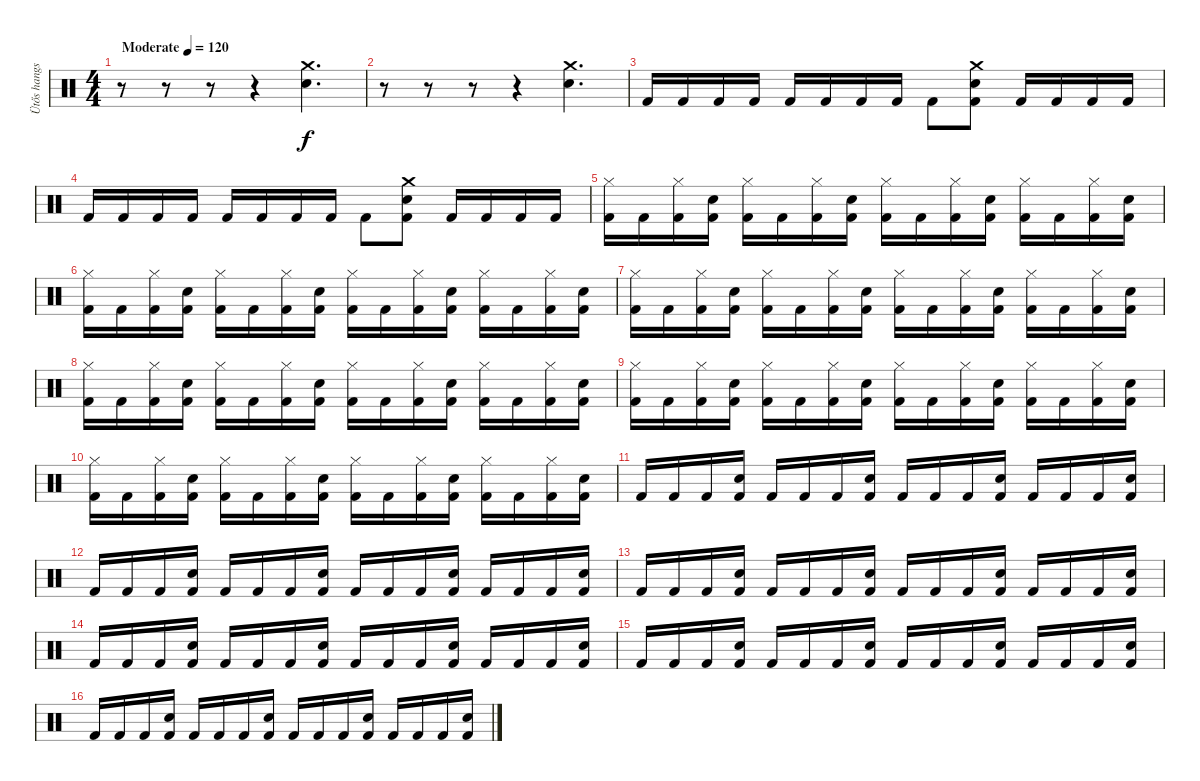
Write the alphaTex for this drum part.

\track ("Ütős hangszer" "Ütős hangs") {instrument percussion}
\staff {score}
\articulation defaults
\ts (4 4)
\tempo (120 "Moderate")
\clef neutral
\ks c
r.8{dy f} r.8 r.8 r.4 ("Crash medium (hit)" "Snare (hit) 2").4{d} |
r.8 r.8 r.8 r.4 ("Crash medium (hit)" "Snare (hit) 2").4{d} |
"Kick (hit) 2".16 "Kick (hit) 2".16 "Kick (hit) 2".16 "Kick (hit) 2".16 "Kick (hit) 2".16 "Kick (hit) 2".16 "Kick (hit) 2".16 "Kick (hit) 2".16 "Kick (hit) 2".8 ("Crash medium (hit)" "Snare (hit) 2" "Kick (hit) 2").8 "Kick (hit) 2".16 "Kick (hit) 2".16 "Kick (hit) 2".16 "Kick (hit) 2".16 |
"Kick (hit) 2".16 "Kick (hit) 2".16 "Kick (hit) 2".16 "Kick (hit) 2".16 "Kick (hit) 2".16 "Kick (hit) 2".16 "Kick (hit) 2".16 "Kick (hit) 2".16 "Kick (hit) 2".8 ("Crash medium (hit)" "Snare (hit) 2" "Kick (hit) 2").8 "Kick (hit) 2".16 "Kick (hit) 2".16 "Kick (hit) 2".16 "Kick (hit) 2".16 |
("Hi-Hat (closed)" "Kick (hit) 2").16 "Kick (hit) 2".16 ("Hi-Hat (closed)" "Kick (hit) 2").16 ("Snare (hit) 2" "Kick (hit) 2").16 ("Hi-Hat (closed)" "Kick (hit) 2").16 "Kick (hit) 2".16 ("Hi-Hat (closed)" "Kick (hit) 2").16 ("Snare (hit) 2" "Kick (hit) 2").16 ("Hi-Hat (closed)" "Kick (hit) 2").16 "Kick (hit) 2".16 ("Hi-Hat (closed)" "Kick (hit) 2").16 ("Snare (hit) 2" "Kick (hit) 2").16 ("Hi-Hat (closed)" "Kick (hit) 2").16 "Kick (hit) 2".16 ("Hi-Hat (closed)" "Kick (hit) 2").16 ("Snare (hit) 2" "Kick (hit) 2").16 |
("Hi-Hat (closed)" "Kick (hit) 2").16 "Kick (hit) 2".16 ("Hi-Hat (closed)" "Kick (hit) 2").16 ("Snare (hit) 2" "Kick (hit) 2").16 ("Hi-Hat (closed)" "Kick (hit) 2").16 "Kick (hit) 2".16 ("Hi-Hat (closed)" "Kick (hit) 2").16 ("Snare (hit) 2" "Kick (hit) 2").16 ("Hi-Hat (closed)" "Kick (hit) 2").16 "Kick (hit) 2".16 ("Hi-Hat (closed)" "Kick (hit) 2").16 ("Snare (hit) 2" "Kick (hit) 2").16 ("Hi-Hat (closed)" "Kick (hit) 2").16 "Kick (hit) 2".16 ("Hi-Hat (closed)" "Kick (hit) 2").16 ("Snare (hit) 2" "Kick (hit) 2").16 |
("Hi-Hat (closed)" "Kick (hit) 2").16 "Kick (hit) 2".16 ("Hi-Hat (closed)" "Kick (hit) 2").16 ("Snare (hit) 2" "Kick (hit) 2").16 ("Hi-Hat (closed)" "Kick (hit) 2").16 "Kick (hit) 2".16 ("Hi-Hat (closed)" "Kick (hit) 2").16 ("Snare (hit) 2" "Kick (hit) 2").16 ("Hi-Hat (closed)" "Kick (hit) 2").16 "Kick (hit) 2".16 ("Hi-Hat (closed)" "Kick (hit) 2").16 ("Snare (hit) 2" "Kick (hit) 2").16 ("Hi-Hat (closed)" "Kick (hit) 2").16 "Kick (hit) 2".16 ("Hi-Hat (closed)" "Kick (hit) 2").16 ("Snare (hit) 2" "Kick (hit) 2").16 |
("Hi-Hat (closed)" "Kick (hit) 2").16 "Kick (hit) 2".16 ("Hi-Hat (closed)" "Kick (hit) 2").16 ("Snare (hit) 2" "Kick (hit) 2").16 ("Hi-Hat (closed)" "Kick (hit) 2").16 "Kick (hit) 2".16 ("Hi-Hat (closed)" "Kick (hit) 2").16 ("Snare (hit) 2" "Kick (hit) 2").16 ("Hi-Hat (closed)" "Kick (hit) 2").16 "Kick (hit) 2".16 ("Hi-Hat (closed)" "Kick (hit) 2").16 ("Snare (hit) 2" "Kick (hit) 2").16 ("Hi-Hat (closed)" "Kick (hit) 2").16 "Kick (hit) 2".16 ("Hi-Hat (closed)" "Kick (hit) 2").16 ("Snare (hit) 2" "Kick (hit) 2").16 |
("Hi-Hat (closed)" "Kick (hit) 2").16 "Kick (hit) 2".16 ("Hi-Hat (closed)" "Kick (hit) 2").16 ("Snare (hit) 2" "Kick (hit) 2").16 ("Hi-Hat (closed)" "Kick (hit) 2").16 "Kick (hit) 2".16 ("Hi-Hat (closed)" "Kick (hit) 2").16 ("Snare (hit) 2" "Kick (hit) 2").16 ("Hi-Hat (closed)" "Kick (hit) 2").16 "Kick (hit) 2".16 ("Hi-Hat (closed)" "Kick (hit) 2").16 ("Snare (hit) 2" "Kick (hit) 2").16 ("Hi-Hat (closed)" "Kick (hit) 2").16 "Kick (hit) 2".16 ("Hi-Hat (closed)" "Kick (hit) 2").16 ("Snare (hit) 2" "Kick (hit) 2").16 |
("Hi-Hat (closed)" "Kick (hit) 2").16 "Kick (hit) 2".16 ("Hi-Hat (closed)" "Kick (hit) 2").16 ("Snare (hit) 2" "Kick (hit) 2").16 ("Hi-Hat (closed)" "Kick (hit) 2").16 "Kick (hit) 2".16 ("Hi-Hat (closed)" "Kick (hit) 2").16 ("Snare (hit) 2" "Kick (hit) 2").16 ("Hi-Hat (closed)" "Kick (hit) 2").16 "Kick (hit) 2".16 ("Hi-Hat (closed)" "Kick (hit) 2").16 ("Snare (hit) 2" "Kick (hit) 2").16 ("Hi-Hat (closed)" "Kick (hit) 2").16 "Kick (hit) 2".16 ("Hi-Hat (closed)" "Kick (hit) 2").16 ("Snare (hit) 2" "Kick (hit) 2").16 |
"Kick (hit) 2".16 "Kick (hit) 2".16 "Kick (hit) 2".16 ("Snare (hit) 2" "Kick (hit) 2").16 "Kick (hit) 2".16 "Kick (hit) 2".16 "Kick (hit) 2".16 ("Snare (hit) 2" "Kick (hit) 2").16 "Kick (hit) 2".16 "Kick (hit) 2".16 "Kick (hit) 2".16 ("Snare (hit) 2" "Kick (hit) 2").16 "Kick (hit) 2".16 "Kick (hit) 2".16 "Kick (hit) 2".16 ("Snare (hit) 2" "Kick (hit) 2").16 |
"Kick (hit) 2".16 "Kick (hit) 2".16 "Kick (hit) 2".16 ("Snare (hit) 2" "Kick (hit) 2").16 "Kick (hit) 2".16 "Kick (hit) 2".16 "Kick (hit) 2".16 ("Snare (hit) 2" "Kick (hit) 2").16 "Kick (hit) 2".16 "Kick (hit) 2".16 "Kick (hit) 2".16 ("Snare (hit) 2" "Kick (hit) 2").16 "Kick (hit) 2".16 "Kick (hit) 2".16 "Kick (hit) 2".16 ("Snare (hit) 2" "Kick (hit) 2").16 |
"Kick (hit) 2".16 "Kick (hit) 2".16 "Kick (hit) 2".16 ("Snare (hit) 2" "Kick (hit) 2").16 "Kick (hit) 2".16 "Kick (hit) 2".16 "Kick (hit) 2".16 ("Snare (hit) 2" "Kick (hit) 2").16 "Kick (hit) 2".16 "Kick (hit) 2".16 "Kick (hit) 2".16 ("Snare (hit) 2" "Kick (hit) 2").16 "Kick (hit) 2".16 "Kick (hit) 2".16 "Kick (hit) 2".16 ("Snare (hit) 2" "Kick (hit) 2").16 |
"Kick (hit) 2".16 "Kick (hit) 2".16 "Kick (hit) 2".16 ("Snare (hit) 2" "Kick (hit) 2").16 "Kick (hit) 2".16 "Kick (hit) 2".16 "Kick (hit) 2".16 ("Snare (hit) 2" "Kick (hit) 2").16 "Kick (hit) 2".16 "Kick (hit) 2".16 "Kick (hit) 2".16 ("Snare (hit) 2" "Kick (hit) 2").16 "Kick (hit) 2".16 "Kick (hit) 2".16 "Kick (hit) 2".16 ("Snare (hit) 2" "Kick (hit) 2").16 |
"Kick (hit) 2".16 "Kick (hit) 2".16 "Kick (hit) 2".16 ("Snare (hit) 2" "Kick (hit) 2").16 "Kick (hit) 2".16 "Kick (hit) 2".16 "Kick (hit) 2".16 ("Snare (hit) 2" "Kick (hit) 2").16 "Kick (hit) 2".16 "Kick (hit) 2".16 "Kick (hit) 2".16 ("Snare (hit) 2" "Kick (hit) 2").16 "Kick (hit) 2".16 "Kick (hit) 2".16 "Kick (hit) 2".16 ("Snare (hit) 2" "Kick (hit) 2").16 |
"Kick (hit) 2".16 "Kick (hit) 2".16 "Kick (hit) 2".16 ("Snare (hit) 2" "Kick (hit) 2").16 "Kick (hit) 2".16 "Kick (hit) 2".16 "Kick (hit) 2".16 ("Snare (hit) 2" "Kick (hit) 2").16 "Kick (hit) 2".16 "Kick (hit) 2".16 "Kick (hit) 2".16 ("Snare (hit) 2" "Kick (hit) 2").16 "Kick (hit) 2".16 "Kick (hit) 2".16 "Kick (hit) 2".16 ("Snare (hit) 2" "Kick (hit) 2").16
